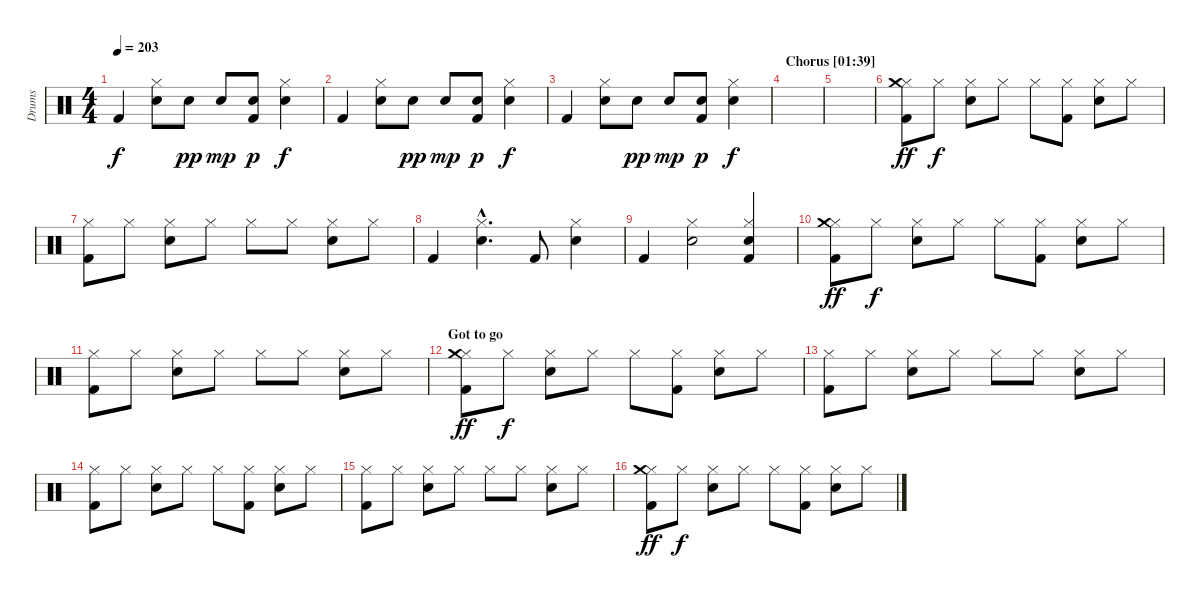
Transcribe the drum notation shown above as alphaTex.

\track ("Drums" "Drums") {instrument percussion}
\staff {score}
\articulation defaults
\ts (4 4)
\tempo 203
\clef neutral
\ks c "Kick (hit) 2".4{dy f}
("Hi-Hat (closed)" "Electric Snare (hit)").8 "Snare (hit) 2".8{dy pp} "Snare (hit) 2".8{dy mp} ("Snare (hit) 2" "Kick (hit) 2").8{dy p} ("Hi-Hat (closed)" "Electric Snare (hit)").4{dy f} |
"Kick (hit) 2".4 ("Hi-Hat (closed)" "Electric Snare (hit)").8 "Snare (hit) 2".8{dy pp} "Snare (hit) 2".8{dy mp} ("Snare (hit) 2" "Kick (hit) 2").8{dy p} ("Hi-Hat (closed)" "Electric Snare (hit)").4{dy f} |
"Kick (hit) 2".4 ("Hi-Hat (closed)" "Electric Snare (hit)").8 "Snare (hit) 2".8{dy pp} "Snare (hit) 2".8{dy mp} ("Snare (hit) 2" "Kick (hit) 2").8{dy p} ("Hi-Hat (closed)" "Electric Snare (hit)").4{dy f} |
\section ("" "Chorus [01:39]")
|
|
("Hi-Hat (closed)" "Crash medium (hit)" "Kick (hit) 2").8{dy ff} "Hi-Hat (closed)".8{dy f} ("Hi-Hat (closed)" "Electric Snare (hit)").8 "Hi-Hat (closed)".8 "Hi-Hat (closed)".8 ("Hi-Hat (closed)" "Kick (hit) 2").8 ("Hi-Hat (closed)" "Electric Snare (hit)").8 "Hi-Hat (closed)".8 |
("Hi-Hat (closed)" "Kick (hit) 2").8 "Hi-Hat (closed)".8 ("Hi-Hat (closed)" "Electric Snare (hit)").8 "Hi-Hat (closed)".8 "Hi-Hat (closed)".8 "Hi-Hat (closed)".8 ("Hi-Hat (closed)" "Electric Snare (hit)").8 "Hi-Hat (closed)".8 |
"Kick (hit) 2".4 ("Hi-Hat (closed)"{hac} "Electric Snare (hit)"{hac}).4{d} "Kick (hit) 2".8 ("Hi-Hat (closed)" "Electric Snare (hit)").4 |
"Kick (hit) 2".4 ("Hi-Hat (closed)" "Electric Snare (hit)").2 ("Hi-Hat (closed)" "Electric Snare (hit)" "Kick (hit) 2").4 |
("Hi-Hat (closed)" "Crash medium (hit)" "Kick (hit) 2").8{dy ff} "Hi-Hat (closed)".8{dy f} ("Hi-Hat (closed)" "Electric Snare (hit)").8 "Hi-Hat (closed)".8 "Hi-Hat (closed)".8 ("Hi-Hat (closed)" "Kick (hit) 2").8 ("Hi-Hat (closed)" "Electric Snare (hit)").8 "Hi-Hat (closed)".8 |
("Hi-Hat (closed)" "Kick (hit) 2").8 "Hi-Hat (closed)".8 ("Hi-Hat (closed)" "Electric Snare (hit)").8 "Hi-Hat (closed)".8 "Hi-Hat (closed)".8 "Hi-Hat (closed)".8 ("Hi-Hat (closed)" "Electric Snare (hit)").8 "Hi-Hat (closed)".8 |
\section ("" "Got to go")
("Hi-Hat (closed)" "Crash medium (hit)" "Kick (hit) 2").8{dy ff} "Hi-Hat (closed)".8{dy f} ("Hi-Hat (closed)" "Electric Snare (hit)").8 "Hi-Hat (closed)".8 "Hi-Hat (closed)".8 ("Hi-Hat (closed)" "Kick (hit) 2").8 ("Hi-Hat (closed)" "Electric Snare (hit)").8 "Hi-Hat (closed)".8 |
("Hi-Hat (closed)" "Kick (hit) 2").8 "Hi-Hat (closed)".8 ("Hi-Hat (closed)" "Electric Snare (hit)").8 "Hi-Hat (closed)".8 "Hi-Hat (closed)".8 "Hi-Hat (closed)".8 ("Hi-Hat (closed)" "Electric Snare (hit)").8 "Hi-Hat (closed)".8 |
("Hi-Hat (closed)" "Kick (hit) 2").8 "Hi-Hat (closed)".8 ("Hi-Hat (closed)" "Electric Snare (hit)").8 "Hi-Hat (closed)".8 "Hi-Hat (closed)".8 ("Hi-Hat (closed)" "Kick (hit) 2").8 ("Hi-Hat (closed)" "Electric Snare (hit)").8 "Hi-Hat (closed)".8 |
("Hi-Hat (closed)" "Kick (hit) 2").8 "Hi-Hat (closed)".8 ("Hi-Hat (closed)" "Electric Snare (hit)").8 "Hi-Hat (closed)".8 "Hi-Hat (closed)".8 "Hi-Hat (closed)".8 ("Hi-Hat (closed)" "Electric Snare (hit)").8 "Hi-Hat (closed)".8 |
("Hi-Hat (closed)" "Crash medium (hit)" "Kick (hit) 2").8{dy ff} "Hi-Hat (closed)".8{dy f} ("Hi-Hat (closed)" "Electric Snare (hit)").8 "Hi-Hat (closed)".8 "Hi-Hat (closed)".8 ("Hi-Hat (closed)" "Kick (hit) 2").8 ("Hi-Hat (closed)" "Electric Snare (hit)").8 "Hi-Hat (closed)".8
